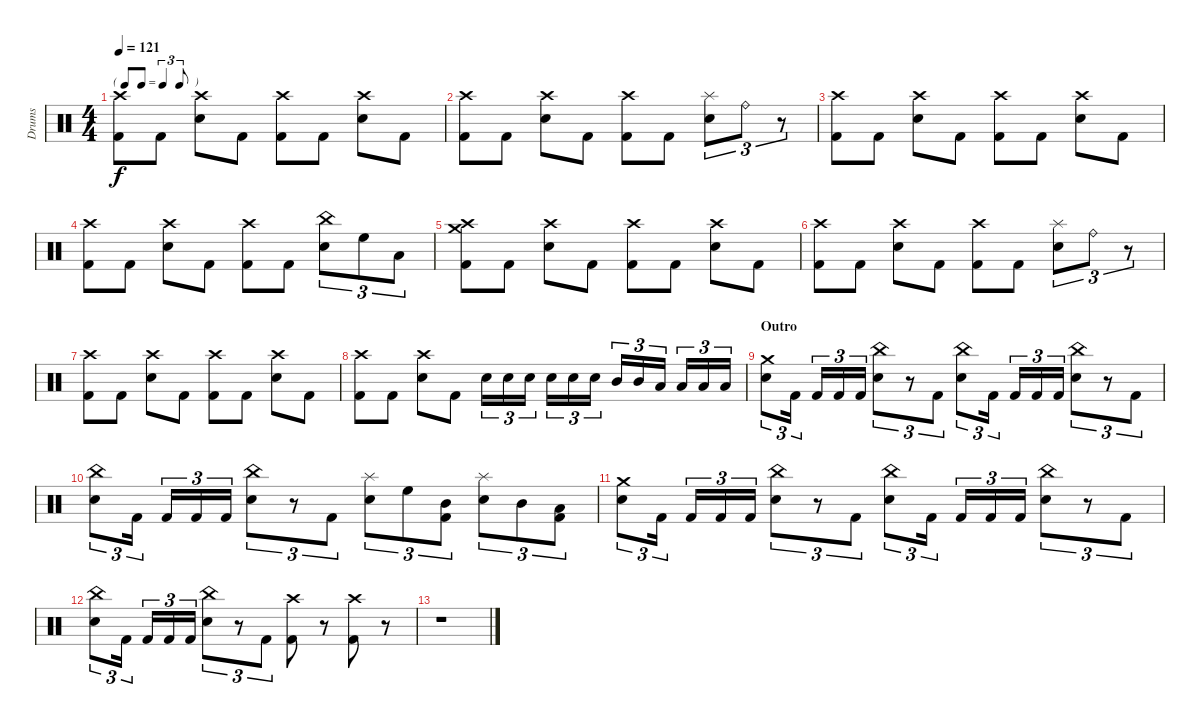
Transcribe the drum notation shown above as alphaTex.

\track ("Drums" "Drums") {instrument percussion}
\staff {score}
\articulation defaults
\ts (4 4)
\tf triplet8th
\tempo 121
\clef neutral
\ks c
("Crash high (hit)" "Kick (hit) 2").8{dy f} "Kick (hit) 2".8 ("Crash high (hit)" "Electric Snare (hit)").8 "Kick (hit) 2".8 ("Crash high (hit)" "Kick (hit) 2").8 "Kick (hit) 2".8 ("Crash high (hit)" "Electric Snare (hit)").8 "Kick (hit) 2".8 |
("Crash high (hit)" "Kick (hit) 2").8 "Kick (hit) 2".8 ("Crash high (hit)" "Electric Snare (hit)").8 "Kick (hit) 2".8 ("Crash high (hit)" "Kick (hit) 2").8 "Kick (hit) 2".8 ("Splash (hit)" "Electric Snare (hit)").8{tu (3 2)} "Ride (bell)".8{tu (3 2)} r.8{tu (3 2)} |
("Crash high (hit)" "Kick (hit) 2").8 "Kick (hit) 2".8 ("Crash high (hit)" "Electric Snare (hit)").8 "Kick (hit) 2".8 ("Crash high (hit)" "Kick (hit) 2").8 "Kick (hit) 2".8 ("Crash high (hit)" "Electric Snare (hit)").8 "Kick (hit) 2".8 |
("Crash high (hit)" "Kick (hit) 2").8 "Kick (hit) 2".8 ("Crash high (hit)" "Electric Snare (hit)").8 "Kick (hit) 2".8 ("Crash high (hit)" "Kick (hit) 2").8 "Kick (hit) 2".8 ("China (hit)" "Electric Snare (hit)").8{tu (3 2)} "High Floor Tom (hit)".8{tu (3 2)} "Low Tom (hit)".8{tu (3 2)} |
("Crash high (hit)" "Crash medium (hit)" "Kick (hit) 2").8 "Kick (hit) 2".8 ("Crash high (hit)" "Electric Snare (hit)").8 "Kick (hit) 2".8 ("Crash high (hit)" "Kick (hit) 2").8 "Kick (hit) 2".8 ("Crash high (hit)" "Electric Snare (hit)").8 "Kick (hit) 2".8 |
("Crash high (hit)" "Kick (hit) 2").8 "Kick (hit) 2".8 ("Crash high (hit)" "Electric Snare (hit)").8 "Kick (hit) 2".8 ("Crash high (hit)" "Kick (hit) 2").8 "Kick (hit) 2".8 ("Splash (hit)" "Electric Snare (hit)").8{tu (3 2)} "Ride (bell)".8{tu (3 2)} r.8{tu (3 2)} |
("Crash high (hit)" "Kick (hit) 2").8 "Kick (hit) 2".8 ("Crash high (hit)" "Electric Snare (hit)").8 "Kick (hit) 2".8 ("Crash high (hit)" "Kick (hit) 2").8 "Kick (hit) 2".8 ("Crash high (hit)" "Electric Snare (hit)").8 "Kick (hit) 2".8 |
("Crash high (hit)" "Kick (hit) 2").8 "Kick (hit) 2".8 ("Crash high (hit)" "Electric Snare (hit)").8 "Kick (hit) 2".8 "Electric Snare (hit)".16{tu (3 2)} "Electric Snare (hit)".16{tu (3 2)} "Electric Snare (hit)".16{tu (3 2)} "Electric Snare (hit)".16{tu (3 2)} "Electric Snare (hit)".16{tu (3 2)} "Electric Snare (hit)".16{tu (3 2)} "Mid Tom (hit)".16{tu (3 2)} "Mid Tom (hit)".16{tu (3 2)} "Low Tom (hit)".16{tu (3 2)} "Low Tom (hit)".16{tu (3 2)} "Low Floor Tom (hit)".16{tu (3 2)} "Low Floor Tom (hit)".16{tu (3 2)} |
\section ("" "Outro")
("Crash medium (hit)" "Electric Snare (hit)").8{tu (3 2)} "Kick (hit) 2".16{tu (3 2)} "Kick (hit) 2".16{tu (3 2)} "Kick (hit) 2".16{tu (3 2)} "Kick (hit) 2".16{tu (3 2)} ("China (hit)" "Electric Snare (hit)").8{tu (3 2)} r.8{tu (3 2)} "Kick (hit) 2".8{tu (3 2)} ("China (hit)" "Electric Snare (hit)").8{tu (3 2)} "Kick (hit) 2".16{tu (3 2)} "Kick (hit) 2".16{tu (3 2)} "Kick (hit) 2".16{tu (3 2)} "Kick (hit) 2".16{tu (3 2)} ("China (hit)" "Electric Snare (hit)").8{tu (3 2)} r.8{tu (3 2)} "Kick (hit) 2".8{tu (3 2)} |
("China (hit)" "Electric Snare (hit)").8{tu (3 2)} "Kick (hit) 2".16{tu (3 2)} "Kick (hit) 2".16{tu (3 2)} "Kick (hit) 2".16{tu (3 2)} "Kick (hit) 2".16{tu (3 2)} ("China (hit)" "Electric Snare (hit)").8{tu (3 2)} r.8{tu (3 2)} "Kick (hit) 2".8{tu (3 2)} ("Splash (hit)" "Electric Snare (hit)").8{tu (3 2)} "High Floor Tom (hit)".8{tu (3 2)} ("Mid Tom (hit)" "Kick (hit) 2").8{tu (3 2)} ("Splash (hit)" "Electric Snare (hit)").8{tu (3 2)} "Mid Tom (hit)".8{tu (3 2)} ("Low Tom (hit)" "Kick (hit) 2").8{tu (3 2)} |
("Crash medium (hit)" "Electric Snare (hit)").8{tu (3 2)} "Kick (hit) 2".16{tu (3 2)} "Kick (hit) 2".16{tu (3 2)} "Kick (hit) 2".16{tu (3 2)} "Kick (hit) 2".16{tu (3 2)} ("China (hit)" "Electric Snare (hit)").8{tu (3 2)} r.8{tu (3 2)} "Kick (hit) 2".8{tu (3 2)} ("China (hit)" "Electric Snare (hit)").8{tu (3 2)} "Kick (hit) 2".16{tu (3 2)} "Kick (hit) 2".16{tu (3 2)} "Kick (hit) 2".16{tu (3 2)} "Kick (hit) 2".16{tu (3 2)} ("China (hit)" "Electric Snare (hit)").8{tu (3 2)} r.8{tu (3 2)} "Kick (hit) 2".8{tu (3 2)} |
("China (hit)" "Electric Snare (hit)").8{tu (3 2)} "Kick (hit) 2".16{tu (3 2)} "Kick (hit) 2".16{tu (3 2)} "Kick (hit) 2".16{tu (3 2)} "Kick (hit) 2".16{tu (3 2)} ("China (hit)" "Electric Snare (hit)").8{tu (3 2)} r.8{tu (3 2)} "Kick (hit) 2".8{tu (3 2)} ("Crash high (hit)" "Kick (hit) 2").8 r.8{volume 0} ("Crash high (hit)" "Kick (hit) 2").8{volume 15} r.8{volume 0} |
r.1
